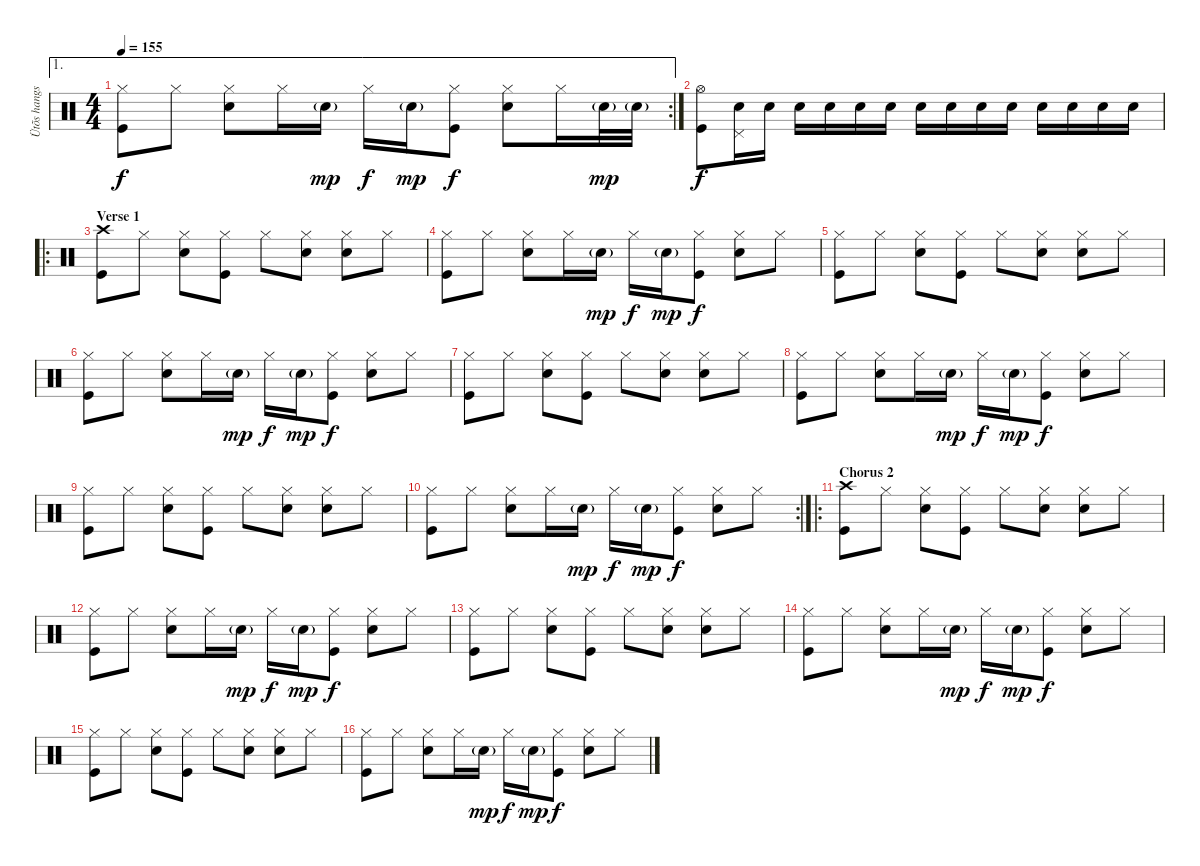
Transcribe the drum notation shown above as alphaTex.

\track ("Ütõs hangszer" "Ütõs hangs") {instrument percussion}
\staff {score}
\articulation defaults
\ae 1
\rc 2
\ts (4 4)
\tempo 155
\clef neutral
\ks c
("Hi-Hat (closed)" "Kick (hit)").8{dy f} "Hi-Hat (closed)".8 ("Hi-Hat (closed)" "Electric Snare (hit)").8 "Hi-Hat (closed)".16 "Electric Snare (hit)"{g}.16{dy mp} "Hi-Hat (closed)".16{dy f} "Electric Snare (hit)"{g}.16{dy mp} ("Hi-Hat (closed)" "Kick (hit)").8{dy f} ("Hi-Hat (closed)" "Electric Snare (hit)").8 "Hi-Hat (closed)".16 "Electric Snare (hit)"{g}.32{dy mp} "Electric Snare (hit)"{g}.32 |
("Hi-Hat (open)" "Kick (hit)").8{dy f} ("Pedal Hi-Hat (hit)" "Electric Snare (hit)").16 "Electric Snare (hit)".16 "Electric Snare (hit)".16 "Electric Snare (hit)".16 "Electric Snare (hit)".16 "Electric Snare (hit)".16 "Electric Snare (hit)".16 "Electric Snare (hit)".16 "Electric Snare (hit)".16 "Electric Snare (hit)".16 "Electric Snare (hit)".16 "Electric Snare (hit)".16 "Electric Snare (hit)".16 "Electric Snare (hit)".16 |
\ro
\section ("" "Verse 1")
("Crash high (hit)" "Kick (hit)").8 "Hi-Hat (closed)".8 ("Hi-Hat (closed)" "Electric Snare (hit)").8 ("Hi-Hat (closed)" "Kick (hit)").8 "Hi-Hat (closed)".8 ("Hi-Hat (closed)" "Electric Snare (hit)").8 ("Hi-Hat (closed)" "Electric Snare (hit)").8 "Hi-Hat (closed)".8 |
("Hi-Hat (closed)" "Kick (hit)").8 "Hi-Hat (closed)".8 ("Hi-Hat (closed)" "Electric Snare (hit)").8 "Hi-Hat (closed)".16 "Electric Snare (hit)"{g}.16{dy mp} "Hi-Hat (closed)".16{dy f} "Electric Snare (hit)"{g}.16{dy mp} ("Hi-Hat (closed)" "Kick (hit)").8{dy f} ("Hi-Hat (closed)" "Electric Snare (hit)").8 "Hi-Hat (closed)".8 |
("Hi-Hat (closed)" "Kick (hit)").8 "Hi-Hat (closed)".8 ("Hi-Hat (closed)" "Electric Snare (hit)").8 ("Hi-Hat (closed)" "Kick (hit)").8 "Hi-Hat (closed)".8 ("Hi-Hat (closed)" "Electric Snare (hit)").8 ("Hi-Hat (closed)" "Electric Snare (hit)").8 "Hi-Hat (closed)".8 |
("Hi-Hat (closed)" "Kick (hit)").8 "Hi-Hat (closed)".8 ("Hi-Hat (closed)" "Electric Snare (hit)").8 "Hi-Hat (closed)".16 "Electric Snare (hit)"{g}.16{dy mp} "Hi-Hat (closed)".16{dy f} "Electric Snare (hit)"{g}.16{dy mp} ("Hi-Hat (closed)" "Kick (hit)").8{dy f} ("Hi-Hat (closed)" "Electric Snare (hit)").8 "Hi-Hat (closed)".8 |
("Hi-Hat (closed)" "Kick (hit)").8 "Hi-Hat (closed)".8 ("Hi-Hat (closed)" "Electric Snare (hit)").8 ("Hi-Hat (closed)" "Kick (hit)").8 "Hi-Hat (closed)".8 ("Hi-Hat (closed)" "Electric Snare (hit)").8 ("Hi-Hat (closed)" "Electric Snare (hit)").8 "Hi-Hat (closed)".8 |
("Hi-Hat (closed)" "Kick (hit)").8 "Hi-Hat (closed)".8 ("Hi-Hat (closed)" "Electric Snare (hit)").8 "Hi-Hat (closed)".16 "Electric Snare (hit)"{g}.16{dy mp} "Hi-Hat (closed)".16{dy f} "Electric Snare (hit)"{g}.16{dy mp} ("Hi-Hat (closed)" "Kick (hit)").8{dy f} ("Hi-Hat (closed)" "Electric Snare (hit)").8 "Hi-Hat (closed)".8 |
("Hi-Hat (closed)" "Kick (hit)").8 "Hi-Hat (closed)".8 ("Hi-Hat (closed)" "Electric Snare (hit)").8 ("Hi-Hat (closed)" "Kick (hit)").8 "Hi-Hat (closed)".8 ("Hi-Hat (closed)" "Electric Snare (hit)").8 ("Hi-Hat (closed)" "Electric Snare (hit)").8 "Hi-Hat (closed)".8 |
\rc 2
("Hi-Hat (closed)" "Kick (hit)").8 "Hi-Hat (closed)".8 ("Hi-Hat (closed)" "Electric Snare (hit)").8 "Hi-Hat (closed)".16 "Electric Snare (hit)"{g}.16{dy mp} "Hi-Hat (closed)".16{dy f} "Electric Snare (hit)"{g}.16{dy mp} ("Hi-Hat (closed)" "Kick (hit)").8{dy f} ("Hi-Hat (closed)" "Electric Snare (hit)").8 "Hi-Hat (closed)".8 |
\ro
\section ("" "Chorus 2")
("Crash high (hit)" "Kick (hit)").8 "Hi-Hat (closed)".8 ("Hi-Hat (closed)" "Electric Snare (hit)").8 ("Hi-Hat (closed)" "Kick (hit)").8 "Hi-Hat (closed)".8 ("Hi-Hat (closed)" "Electric Snare (hit)").8 ("Hi-Hat (closed)" "Electric Snare (hit)").8 "Hi-Hat (closed)".8 |
("Hi-Hat (closed)" "Kick (hit)").8 "Hi-Hat (closed)".8 ("Hi-Hat (closed)" "Electric Snare (hit)").8 "Hi-Hat (closed)".16 "Electric Snare (hit)"{g}.16{dy mp} "Hi-Hat (closed)".16{dy f} "Electric Snare (hit)"{g}.16{dy mp} ("Hi-Hat (closed)" "Kick (hit)").8{dy f} ("Hi-Hat (closed)" "Electric Snare (hit)").8 "Hi-Hat (closed)".8 |
("Hi-Hat (closed)" "Kick (hit)").8 "Hi-Hat (closed)".8 ("Hi-Hat (closed)" "Electric Snare (hit)").8 ("Hi-Hat (closed)" "Kick (hit)").8 "Hi-Hat (closed)".8 ("Hi-Hat (closed)" "Electric Snare (hit)").8 ("Hi-Hat (closed)" "Electric Snare (hit)").8 "Hi-Hat (closed)".8 |
("Hi-Hat (closed)" "Kick (hit)").8 "Hi-Hat (closed)".8 ("Hi-Hat (closed)" "Electric Snare (hit)").8 "Hi-Hat (closed)".16 "Electric Snare (hit)"{g}.16{dy mp} "Hi-Hat (closed)".16{dy f} "Electric Snare (hit)"{g}.16{dy mp} ("Hi-Hat (closed)" "Kick (hit)").8{dy f} ("Hi-Hat (closed)" "Electric Snare (hit)").8 "Hi-Hat (closed)".8 |
("Hi-Hat (closed)" "Kick (hit)").8 "Hi-Hat (closed)".8 ("Hi-Hat (closed)" "Electric Snare (hit)").8 ("Hi-Hat (closed)" "Kick (hit)").8 "Hi-Hat (closed)".8 ("Hi-Hat (closed)" "Electric Snare (hit)").8 ("Hi-Hat (closed)" "Electric Snare (hit)").8 "Hi-Hat (closed)".8 |
("Hi-Hat (closed)" "Kick (hit)").8 "Hi-Hat (closed)".8 ("Hi-Hat (closed)" "Electric Snare (hit)").8 "Hi-Hat (closed)".16 "Electric Snare (hit)"{g}.16{dy mp} "Hi-Hat (closed)".16{dy f} "Electric Snare (hit)"{g}.16{dy mp} ("Hi-Hat (closed)" "Kick (hit)").8{dy f} ("Hi-Hat (closed)" "Electric Snare (hit)").8 "Hi-Hat (closed)".8
